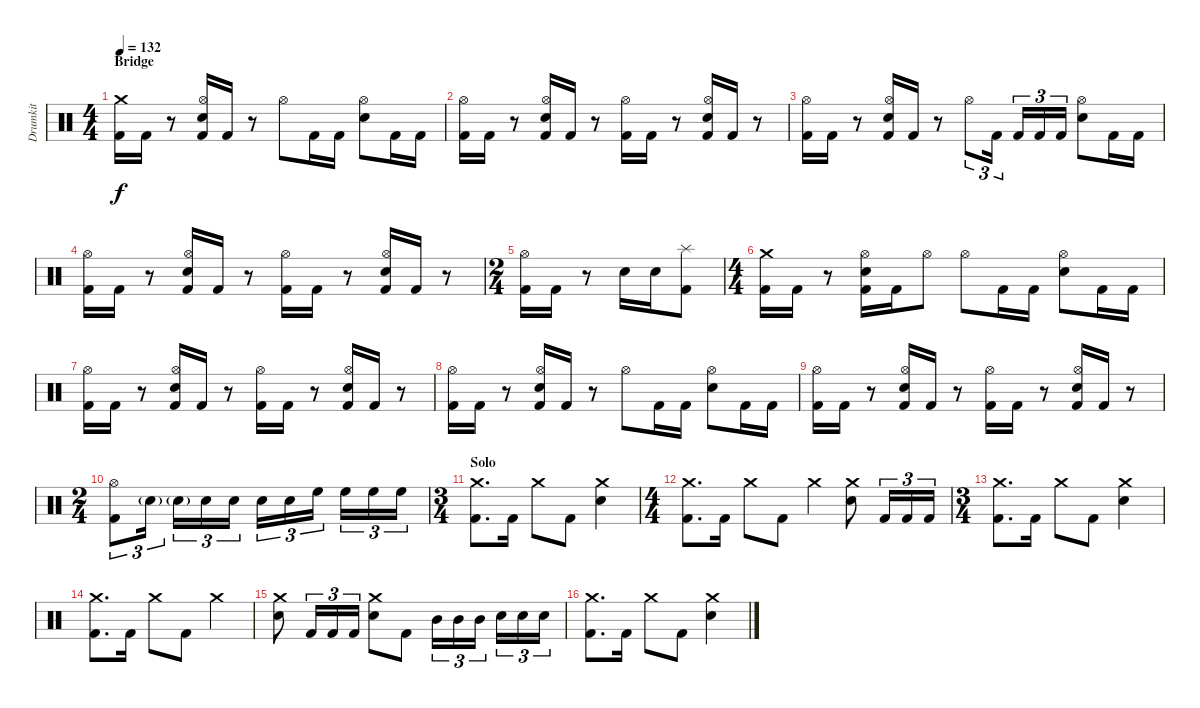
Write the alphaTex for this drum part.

\track ("Drumkit" "Drumkit") {instrument percussion}
\staff {score}
\articulation defaults
\ts (4 4)
\section ("" "Bridge")
\tempo 132
\clef neutral
\ks c
("Crash medium (hit)" "Kick (hit) 2").16{dy f} "Kick (hit) 2".16 r.8 ("Hi-Hat (open)" "Snare (hit) 2" "Kick (hit) 2").16 "Kick (hit) 2".16 r.8 "Hi-Hat (open)".8 "Kick (hit) 2".16 "Kick (hit) 2".16 ("Hi-Hat (open)" "Snare (hit) 2").8 "Kick (hit) 2".16 "Kick (hit) 2".16 |
("Hi-Hat (open)" "Kick (hit) 2").16 "Kick (hit) 2".16 r.8 ("Hi-Hat (open)" "Snare (hit) 2" "Kick (hit) 2").16 "Kick (hit) 2".16 r.8 ("Hi-Hat (open)" "Kick (hit) 2").16 "Kick (hit) 2".16 r.8 ("Hi-Hat (open)" "Snare (hit) 2" "Kick (hit) 2").16 "Kick (hit) 2".16 r.8 |
("Hi-Hat (open)" "Kick (hit) 2").16 "Kick (hit) 2".16 r.8 ("Hi-Hat (open)" "Snare (hit) 2" "Kick (hit) 2").16 "Kick (hit) 2".16 r.8 "Hi-Hat (open)".8{tu (3 2)} "Kick (hit) 2".16{tu (3 2)} "Kick (hit) 2".16{tu (3 2)} "Kick (hit) 2".16{tu (3 2)} "Kick (hit) 2".16{tu (3 2)} ("Hi-Hat (open)" "Snare (hit) 2").8 "Kick (hit) 2".16 "Kick (hit) 2".16 |
("Hi-Hat (open)" "Kick (hit) 2").16 "Kick (hit) 2".16 r.8 ("Hi-Hat (open)" "Snare (hit) 2" "Kick (hit) 2").16 "Kick (hit) 2".16 r.8 ("Hi-Hat (open)" "Kick (hit) 2").16 "Kick (hit) 2".16 r.8 ("Hi-Hat (open)" "Snare (hit) 2" "Kick (hit) 2").16 "Kick (hit) 2".16 r.8 |
\ts (2 4)
("Hi-Hat (open)" "Kick (hit) 2").16 "Kick (hit) 2".16 r.8 "Snare (hit) 2".16 "Snare (hit) 2".16 ("Splash (hit)" "Kick (hit) 2").8 |
\ts (4 4)
("Crash medium (hit)" "Kick (hit) 2").16 "Kick (hit) 2".16 r.8 ("Hi-Hat (open)" "Snare (hit) 2" "Kick (hit) 2").16 "Kick (hit) 2".16 "Hi-Hat (open)".8 "Hi-Hat (open)".8 "Kick (hit) 2".16 "Kick (hit) 2".16 ("Hi-Hat (open)" "Snare (hit) 2").8 "Kick (hit) 2".16 "Kick (hit) 2".16 |
("Hi-Hat (open)" "Kick (hit) 2").16 "Kick (hit) 2".16 r.8 ("Hi-Hat (open)" "Snare (hit) 2" "Kick (hit) 2").16 "Kick (hit) 2".16 r.8 ("Hi-Hat (open)" "Kick (hit) 2").16 "Kick (hit) 2".16 r.8 ("Hi-Hat (open)" "Snare (hit) 2" "Kick (hit) 2").16 "Kick (hit) 2".16 r.8 |
("Hi-Hat (open)" "Kick (hit) 2").16 "Kick (hit) 2".16 r.8 ("Hi-Hat (open)" "Snare (hit) 2" "Kick (hit) 2").16 "Kick (hit) 2".16 r.8 "Hi-Hat (open)".8 "Kick (hit) 2".16 "Kick (hit) 2".16 ("Hi-Hat (open)" "Snare (hit) 2").8 "Kick (hit) 2".16 "Kick (hit) 2".16 |
("Hi-Hat (open)" "Kick (hit) 2").16 "Kick (hit) 2".16 r.8 ("Hi-Hat (open)" "Snare (hit) 2" "Kick (hit) 2").16 "Kick (hit) 2".16 r.8 ("Hi-Hat (open)" "Kick (hit) 2").16 "Kick (hit) 2".16 r.8 ("Hi-Hat (open)" "Snare (hit) 2" "Kick (hit) 2").16 "Kick (hit) 2".16 r.8 |
\ts (2 4)
("Hi-Hat (open)" "Kick (hit) 2").8{tu (3 2)} "Snare (hit) 2"{g}.16{tu (3 2)} "Snare (hit) 2"{g}.16{tu (3 2)} "Snare (hit) 2".16{tu (3 2)} "Snare (hit) 2".16{tu (3 2)} "Snare (hit) 2".16{tu (3 2)} "Snare (hit) 2".16{tu (3 2)} "High Floor Tom (hit)".16{tu (3 2)} "High Floor Tom (hit)".16{tu (3 2)} "High Floor Tom (hit)".16{tu (3 2)} "High Floor Tom (hit)".16{tu (3 2)} |
\ts (3 4)
\section ("" "Solo")
("Crash medium (hit)" "Kick (hit) 2").8{d} "Kick (hit) 2".16 "Crash medium (hit)".8 "Kick (hit) 2".8 ("Crash medium (hit)" "Snare (hit) 2").4 |
\ts (4 4)
("Crash medium (hit)" "Kick (hit) 2").8{d} "Kick (hit) 2".16 "Crash medium (hit)".8 "Kick (hit) 2".8 "Crash medium (hit)".4 ("Crash medium (hit)" "Snare (hit) 2").8 "Kick (hit) 2".16{tu (3 2)} "Kick (hit) 2".16{tu (3 2)} "Kick (hit) 2".16{tu (3 2)} |
\ts (3 4)
("Crash medium (hit)" "Kick (hit) 2").8{d} "Kick (hit) 2".16 "Crash medium (hit)".8 "Kick (hit) 2".8 ("Crash medium (hit)" "Snare (hit) 2").4 |
("Crash medium (hit)" "Kick (hit) 2").8{d} "Kick (hit) 2".16 "Crash medium (hit)".8 "Kick (hit) 2".8 "Crash medium (hit)".4 |
("Crash medium (hit)" "Snare (hit) 2").8 "Kick (hit) 2".16{tu (3 2)} "Kick (hit) 2".16{tu (3 2)} "Kick (hit) 2".16{tu (3 2)} ("Crash medium (hit)" "Snare (hit) 2").8 "Kick (hit) 2".8 "Mid Tom (hit)".16{tu (3 2)} "Mid Tom (hit)".16{tu (3 2)} "Mid Tom (hit)".16{tu (3 2)} "Snare (hit) 2".16{tu (3 2)} "Snare (hit) 2".16{tu (3 2)} "Snare (hit) 2".16{tu (3 2)} |
("Crash medium (hit)" "Kick (hit) 2").8{d} "Kick (hit) 2".16 "Crash medium (hit)".8 "Kick (hit) 2".8 ("Crash medium (hit)" "Snare (hit) 2").4
